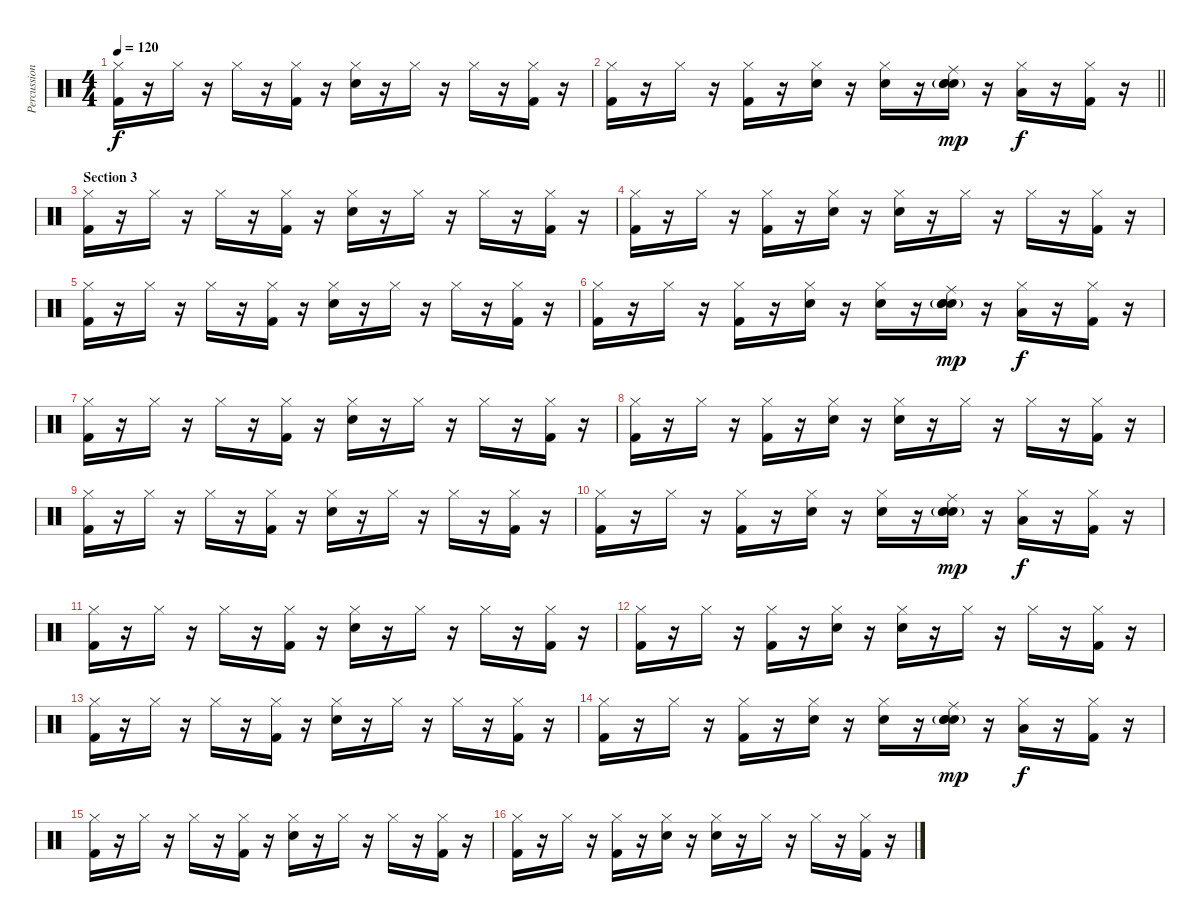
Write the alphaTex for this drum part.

\track ("Percussion" "Percussion") {instrument percussion}
\staff {score}
\articulation defaults
\ts (4 4)
\tempo 120
\clef neutral
\ks c
("Hi-Hat (closed)" "Kick (hit) 2").16{dy f} r.16 "Hi-Hat (closed)".16 r.16 "Hi-Hat (closed)".16 r.16 ("Hi-Hat (closed)" "Kick (hit) 2").16 r.16 ("Hi-Hat (closed)" "Snare (hit) 2").16 r.16 "Hi-Hat (closed)".16 r.16 "Hi-Hat (closed)".16 r.16 ("Hi-Hat (closed)" "Kick (hit) 2").16 r.16 |
\barLineRight lightlight
("Hi-Hat (closed)" "Kick (hit) 2").16 r.16 "Hi-Hat (closed)".16 r.16 ("Hi-Hat (closed)" "Kick (hit) 2").16 r.16 ("Hi-Hat (closed)" "Snare (hit)").16 r.16 ("Hi-Hat (closed)" "Snare (hit) 2").16 r.16 ("Ride (middle)" "Snare (hit)"{g} "Electric Snare (hit)"{g} "Snare (hit) 2"{g}).16{dy mp} r.16 ("Hi-Hat (closed)" "Low Floor Tom (hit)").16{dy f} r.16 ("Hi-Hat (closed)" "Kick (hit) 2").16 r.16 |
\section ("" "Section 3")
("Hi-Hat (closed)" "Kick (hit) 2").16 r.16 "Hi-Hat (closed)".16 r.16 "Hi-Hat (closed)".16 r.16 ("Hi-Hat (closed)" "Kick (hit) 2").16 r.16 ("Hi-Hat (closed)" "Snare (hit) 2").16 r.16 "Hi-Hat (closed)".16 r.16 "Hi-Hat (closed)".16 r.16 ("Hi-Hat (closed)" "Kick (hit) 2").16 r.16 |
("Hi-Hat (closed)" "Kick (hit) 2").16 r.16 "Hi-Hat (closed)".16 r.16 ("Hi-Hat (closed)" "Kick (hit) 2").16 r.16 ("Hi-Hat (closed)" "Snare (hit)").16 r.16 ("Hi-Hat (closed)" "Snare (hit) 2").16 r.16 "Hi-Hat (closed)".16 r.16 "Hi-Hat (closed)".16 r.16 ("Hi-Hat (closed)" "Kick (hit) 2").16 r.16 |
("Hi-Hat (closed)" "Kick (hit) 2").16 r.16 "Hi-Hat (closed)".16 r.16 "Hi-Hat (closed)".16 r.16 ("Hi-Hat (closed)" "Kick (hit) 2").16 r.16 ("Hi-Hat (closed)" "Snare (hit) 2").16 r.16 "Hi-Hat (closed)".16 r.16 "Hi-Hat (closed)".16 r.16 ("Hi-Hat (closed)" "Kick (hit) 2").16 r.16 |
("Hi-Hat (closed)" "Kick (hit) 2").16 r.16 "Hi-Hat (closed)".16 r.16 ("Hi-Hat (closed)" "Kick (hit) 2").16 r.16 ("Hi-Hat (closed)" "Snare (hit)").16 r.16 ("Hi-Hat (closed)" "Snare (hit) 2").16 r.16 ("Ride (middle)" "Snare (hit)"{g} "Electric Snare (hit)"{g} "Snare (hit) 2"{g}).16{dy mp} r.16 ("Hi-Hat (closed)" "Low Floor Tom (hit)").16{dy f} r.16 ("Hi-Hat (closed)" "Kick (hit) 2").16 r.16 |
("Hi-Hat (closed)" "Kick (hit) 2").16 r.16 "Hi-Hat (closed)".16 r.16 "Hi-Hat (closed)".16 r.16 ("Hi-Hat (closed)" "Kick (hit) 2").16 r.16 ("Hi-Hat (closed)" "Snare (hit) 2").16 r.16 "Hi-Hat (closed)".16 r.16 "Hi-Hat (closed)".16 r.16 ("Hi-Hat (closed)" "Kick (hit) 2").16 r.16 |
("Hi-Hat (closed)" "Kick (hit) 2").16 r.16 "Hi-Hat (closed)".16 r.16 ("Hi-Hat (closed)" "Kick (hit) 2").16 r.16 ("Hi-Hat (closed)" "Snare (hit)").16 r.16 ("Hi-Hat (closed)" "Snare (hit) 2").16 r.16 "Hi-Hat (closed)".16 r.16 "Hi-Hat (closed)".16 r.16 ("Hi-Hat (closed)" "Kick (hit) 2").16 r.16 |
("Hi-Hat (closed)" "Kick (hit) 2").16 r.16 "Hi-Hat (closed)".16 r.16 "Hi-Hat (closed)".16 r.16 ("Hi-Hat (closed)" "Kick (hit) 2").16 r.16 ("Hi-Hat (closed)" "Snare (hit) 2").16 r.16 "Hi-Hat (closed)".16 r.16 "Hi-Hat (closed)".16 r.16 ("Hi-Hat (closed)" "Kick (hit) 2").16 r.16 |
("Hi-Hat (closed)" "Kick (hit) 2").16 r.16 "Hi-Hat (closed)".16 r.16 ("Hi-Hat (closed)" "Kick (hit) 2").16 r.16 ("Hi-Hat (closed)" "Snare (hit)").16 r.16 ("Hi-Hat (closed)" "Snare (hit) 2").16 r.16 ("Ride (middle)" "Snare (hit)"{g} "Electric Snare (hit)"{g} "Snare (hit) 2"{g}).16{dy mp} r.16 ("Hi-Hat (closed)" "Low Floor Tom (hit)").16{dy f} r.16 ("Hi-Hat (closed)" "Kick (hit) 2").16 r.16 |
("Hi-Hat (closed)" "Kick (hit) 2").16 r.16 "Hi-Hat (closed)".16 r.16 "Hi-Hat (closed)".16 r.16 ("Hi-Hat (closed)" "Kick (hit) 2").16 r.16 ("Hi-Hat (closed)" "Snare (hit) 2").16 r.16 "Hi-Hat (closed)".16 r.16 "Hi-Hat (closed)".16 r.16 ("Hi-Hat (closed)" "Kick (hit) 2").16 r.16 |
("Hi-Hat (closed)" "Kick (hit) 2").16 r.16 "Hi-Hat (closed)".16 r.16 ("Hi-Hat (closed)" "Kick (hit) 2").16 r.16 ("Hi-Hat (closed)" "Snare (hit)").16 r.16 ("Hi-Hat (closed)" "Snare (hit) 2").16 r.16 "Hi-Hat (closed)".16 r.16 "Hi-Hat (closed)".16 r.16 ("Hi-Hat (closed)" "Kick (hit) 2").16 r.16 |
("Hi-Hat (closed)" "Kick (hit) 2").16 r.16 "Hi-Hat (closed)".16 r.16 "Hi-Hat (closed)".16 r.16 ("Hi-Hat (closed)" "Kick (hit) 2").16 r.16 ("Hi-Hat (closed)" "Snare (hit) 2").16 r.16 "Hi-Hat (closed)".16 r.16 "Hi-Hat (closed)".16 r.16 ("Hi-Hat (closed)" "Kick (hit) 2").16 r.16 |
("Hi-Hat (closed)" "Kick (hit) 2").16 r.16 "Hi-Hat (closed)".16 r.16 ("Hi-Hat (closed)" "Kick (hit) 2").16 r.16 ("Hi-Hat (closed)" "Snare (hit)").16 r.16 ("Hi-Hat (closed)" "Snare (hit) 2").16 r.16 ("Ride (middle)" "Snare (hit)"{g} "Electric Snare (hit)"{g} "Snare (hit) 2"{g}).16{dy mp} r.16 ("Hi-Hat (closed)" "Low Floor Tom (hit)").16{dy f} r.16 ("Hi-Hat (closed)" "Kick (hit) 2").16 r.16 |
("Hi-Hat (closed)" "Kick (hit) 2").16 r.16 "Hi-Hat (closed)".16 r.16 "Hi-Hat (closed)".16 r.16 ("Hi-Hat (closed)" "Kick (hit) 2").16 r.16 ("Hi-Hat (closed)" "Snare (hit) 2").16 r.16 "Hi-Hat (closed)".16 r.16 "Hi-Hat (closed)".16 r.16 ("Hi-Hat (closed)" "Kick (hit) 2").16 r.16 |
("Hi-Hat (closed)" "Kick (hit) 2").16 r.16 "Hi-Hat (closed)".16 r.16 ("Hi-Hat (closed)" "Kick (hit) 2").16 r.16 ("Hi-Hat (closed)" "Snare (hit)").16 r.16 ("Hi-Hat (closed)" "Snare (hit) 2").16 r.16 "Hi-Hat (closed)".16 r.16 "Hi-Hat (closed)".16 r.16 ("Hi-Hat (closed)" "Kick (hit) 2").16 r.16
